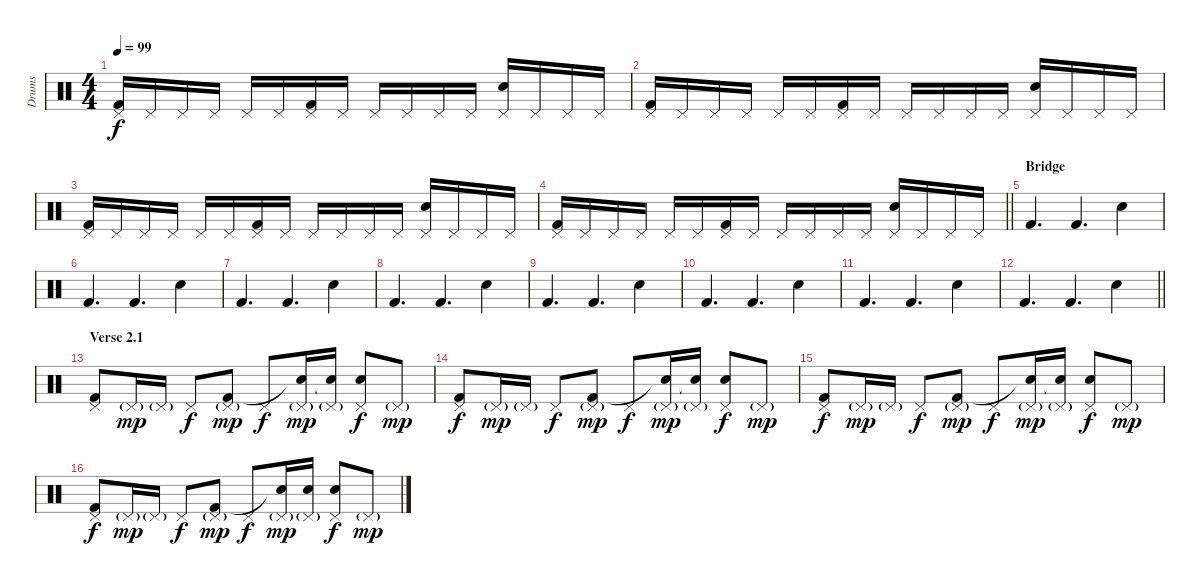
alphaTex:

\track ("Drums" "Drums") {instrument percussion}
\staff {score}
\articulation defaults
\ts (4 4)
\tempo 99
\clef neutral
\ks c
("Pedal Hi-Hat (hit)" "Kick (hit) 2").16{dy f} "Pedal Hi-Hat (hit)".16 "Pedal Hi-Hat (hit)".16 "Pedal Hi-Hat (hit)".16 "Pedal Hi-Hat (hit)".16 "Pedal Hi-Hat (hit)".16 ("Pedal Hi-Hat (hit)" "Kick (hit) 2").16 "Pedal Hi-Hat (hit)".16 "Pedal Hi-Hat (hit)".16 "Pedal Hi-Hat (hit)".16 "Pedal Hi-Hat (hit)".16 "Pedal Hi-Hat (hit)".16 ("Pedal Hi-Hat (hit)" "Snare (hit) 2").16 "Pedal Hi-Hat (hit)".16 "Pedal Hi-Hat (hit)".16 "Pedal Hi-Hat (hit)".16 |
("Pedal Hi-Hat (hit)" "Kick (hit) 2").16 "Pedal Hi-Hat (hit)".16 "Pedal Hi-Hat (hit)".16 "Pedal Hi-Hat (hit)".16 "Pedal Hi-Hat (hit)".16 "Pedal Hi-Hat (hit)".16 ("Pedal Hi-Hat (hit)" "Kick (hit) 2").16 "Pedal Hi-Hat (hit)".16 "Pedal Hi-Hat (hit)".16 "Pedal Hi-Hat (hit)".16 "Pedal Hi-Hat (hit)".16 "Pedal Hi-Hat (hit)".16 ("Pedal Hi-Hat (hit)" "Snare (hit) 2").16 "Pedal Hi-Hat (hit)".16 "Pedal Hi-Hat (hit)".16 "Pedal Hi-Hat (hit)".16 |
("Pedal Hi-Hat (hit)" "Kick (hit) 2").16 "Pedal Hi-Hat (hit)".16 "Pedal Hi-Hat (hit)".16 "Pedal Hi-Hat (hit)".16 "Pedal Hi-Hat (hit)".16 "Pedal Hi-Hat (hit)".16 ("Pedal Hi-Hat (hit)" "Kick (hit) 2").16 "Pedal Hi-Hat (hit)".16 "Pedal Hi-Hat (hit)".16 "Pedal Hi-Hat (hit)".16 "Pedal Hi-Hat (hit)".16 "Pedal Hi-Hat (hit)".16 ("Pedal Hi-Hat (hit)" "Snare (hit) 2").16 "Pedal Hi-Hat (hit)".16 "Pedal Hi-Hat (hit)".16 "Pedal Hi-Hat (hit)".16 |
\barLineRight lightlight
("Pedal Hi-Hat (hit)" "Kick (hit) 2").16 "Pedal Hi-Hat (hit)".16 "Pedal Hi-Hat (hit)".16 "Pedal Hi-Hat (hit)".16 "Pedal Hi-Hat (hit)".16 "Pedal Hi-Hat (hit)".16 ("Pedal Hi-Hat (hit)" "Kick (hit) 2").16 "Pedal Hi-Hat (hit)".16 "Pedal Hi-Hat (hit)".16 "Pedal Hi-Hat (hit)".16 "Pedal Hi-Hat (hit)".16 "Pedal Hi-Hat (hit)".16 ("Pedal Hi-Hat (hit)" "Snare (hit) 2").16 "Pedal Hi-Hat (hit)".16 "Pedal Hi-Hat (hit)".16 "Pedal Hi-Hat (hit)".16 |
\section ("" "Bridge")
"Kick (hit) 2".4{d} "Kick (hit) 2".4{d} "Snare (hit) 2".4 |
"Kick (hit) 2".4{d} "Kick (hit) 2".4{d} "Snare (hit) 2".4 |
"Kick (hit) 2".4{d} "Kick (hit) 2".4{d} "Snare (hit) 2".4 |
"Kick (hit) 2".4{d} "Kick (hit) 2".4{d} "Snare (hit) 2".4 |
"Kick (hit) 2".4{d} "Kick (hit) 2".4{d} "Snare (hit) 2".4 |
"Kick (hit) 2".4{d} "Kick (hit) 2".4{d} "Snare (hit) 2".4 |
"Kick (hit) 2".4{d} "Kick (hit) 2".4{d} "Snare (hit) 2".4 |
\barLineRight lightlight "Kick (hit) 2".4{d} "Kick (hit) 2".4{d} "Snare (hit) 2".4
|
\section ("" "Verse 2.1")
("Pedal Hi-Hat (hit)" "Kick (hit) 2").8 "Pedal Hi-Hat (hit)"{g}.16{dy mp} "Pedal Hi-Hat (hit)"{g}.16 "Pedal Hi-Hat (hit)".8{dy f} ("Pedal Hi-Hat (hit)"{g} "Kick (hit) 2").8{dy mp} "Pedal Hi-Hat (hit)".8{dy f} ("Pedal Hi-Hat (hit)"{g} "Snare (hit)"{t}).16{dy mp} ("Pedal Hi-Hat (hit)"{g} "Snare (hit)"{t}).16 ("Pedal Hi-Hat (hit)" "Snare (hit) 2").8{dy f} "Pedal Hi-Hat (hit)"{g}.8{dy mp} |
("Pedal Hi-Hat (hit)" "Kick (hit) 2").8{dy f} "Pedal Hi-Hat (hit)"{g}.16{dy mp} "Pedal Hi-Hat (hit)"{g}.16 "Pedal Hi-Hat (hit)".8{dy f} ("Pedal Hi-Hat (hit)"{g} "Kick (hit) 2").8{dy mp} "Pedal Hi-Hat (hit)".8{dy f} ("Pedal Hi-Hat (hit)"{g} "Snare (hit)"{t}).16{dy mp} ("Pedal Hi-Hat (hit)"{g} "Snare (hit)"{t}).16 ("Pedal Hi-Hat (hit)" "Snare (hit) 2").8{dy f} "Pedal Hi-Hat (hit)"{g}.8{dy mp} |
("Pedal Hi-Hat (hit)" "Kick (hit) 2").8{dy f} "Pedal Hi-Hat (hit)"{g}.16{dy mp} "Pedal Hi-Hat (hit)"{g}.16 "Pedal Hi-Hat (hit)".8{dy f} ("Pedal Hi-Hat (hit)"{g} "Kick (hit) 2").8{dy mp} "Pedal Hi-Hat (hit)".8{dy f} ("Pedal Hi-Hat (hit)"{g} "Snare (hit)"{t}).16{dy mp} ("Pedal Hi-Hat (hit)"{g} "Snare (hit)"{t}).16 ("Pedal Hi-Hat (hit)" "Snare (hit) 2").8{dy f} "Pedal Hi-Hat (hit)"{g}.8{dy mp} |
("Pedal Hi-Hat (hit)" "Kick (hit) 2").8{dy f} "Pedal Hi-Hat (hit)"{g}.16{dy mp} "Pedal Hi-Hat (hit)"{g}.16 "Pedal Hi-Hat (hit)".8{dy f} ("Pedal Hi-Hat (hit)"{g} "Kick (hit) 2").8{dy mp} "Pedal Hi-Hat (hit)".8{dy f} ("Pedal Hi-Hat (hit)"{g} "Snare (hit)"{t}).16{dy mp} ("Pedal Hi-Hat (hit)"{g} "Snare (hit)"{t}).16 ("Pedal Hi-Hat (hit)" "Snare (hit) 2").8{dy f} "Pedal Hi-Hat (hit)"{g}.8{dy mp}
